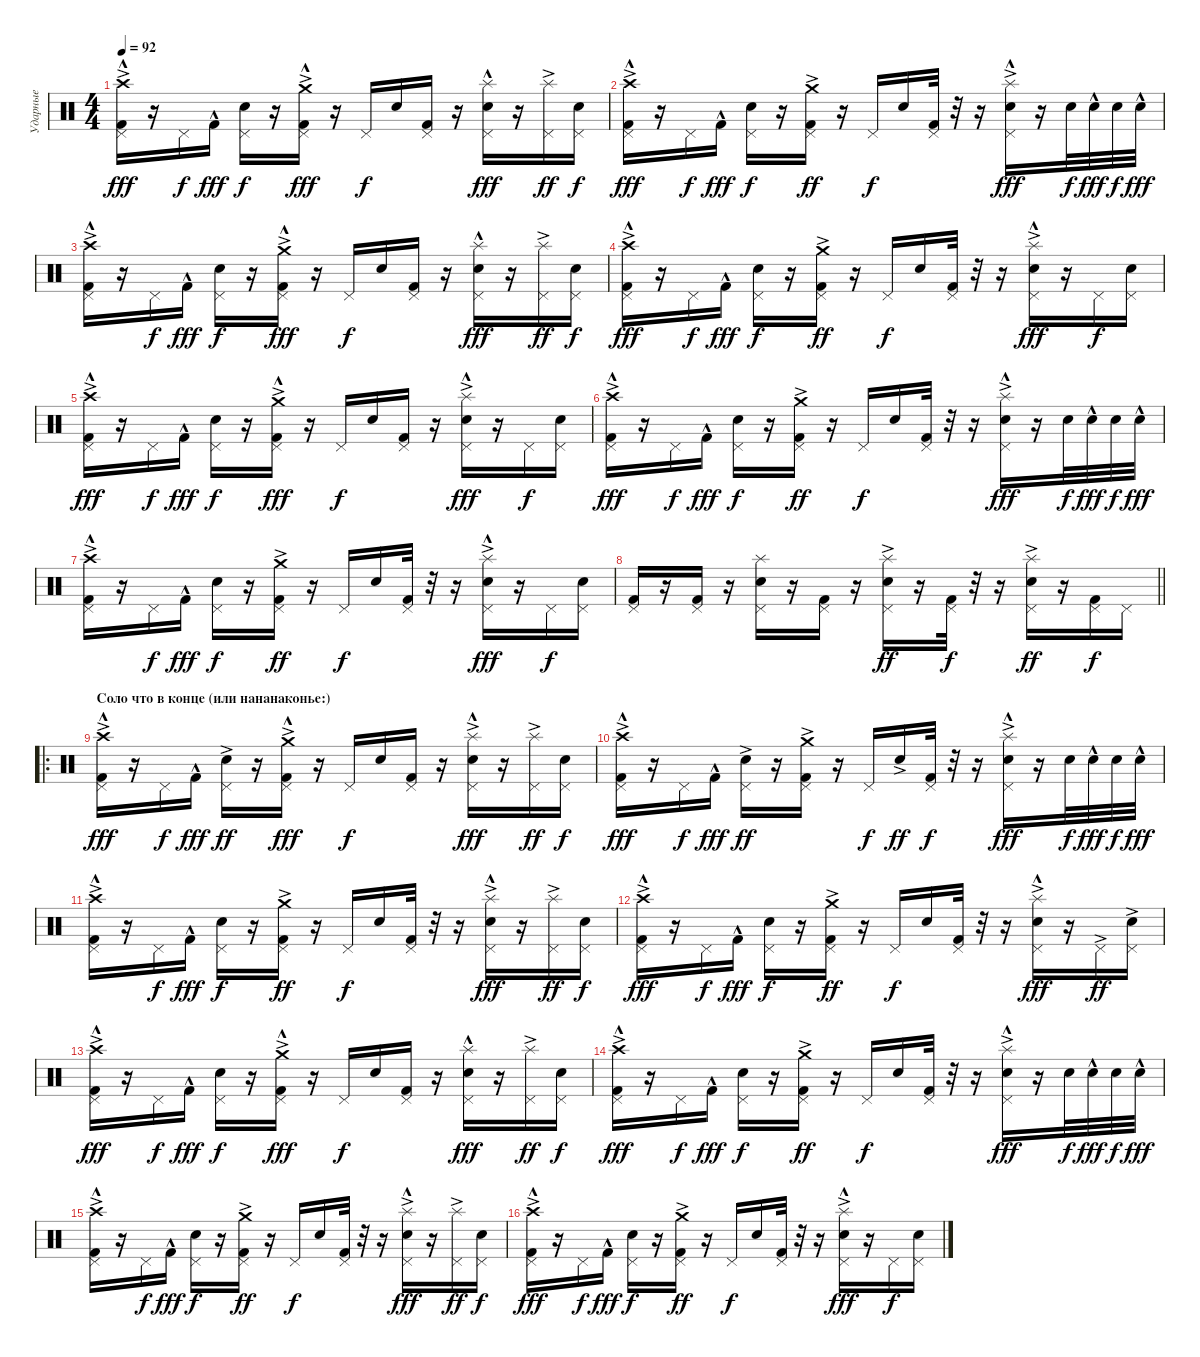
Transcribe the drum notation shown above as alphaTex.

\track ("Ударные" "Ударные") {instrument percussion}
\staff {score}
\articulation defaults
\ts (4 4)
\tempo 92
\clef neutral
\ks c
("Crash high (hit)"{ac} "Kick (hit) 2"{hac} "Pedal Hi-Hat (hit)").16{dy fff} r.16 "Pedal Hi-Hat (hit)".16{dy f} "Kick (hit) 2"{hac}.16{dy fff} ("Electric Snare (hit)" "Pedal Hi-Hat (hit)").16{dy f} r.16 ("Crash medium (hit)"{ac} "Kick (hit) 2"{hac} "Pedal Hi-Hat (hit)").16{dy fff} r.16 "Pedal Hi-Hat (hit)".16{dy f} "Electric Snare (hit)".16 ("Kick (hit) 2" "Pedal Hi-Hat (hit)").16 r.16 ("Splash (hit)" "Electric Snare (hit)" "Pedal Hi-Hat (hit)"{hac}).16{dy fff} r.16 ("Splash (hit)"{ac} "Pedal Hi-Hat (hit)").16{dy ff} ("Electric Snare (hit)" "Pedal Hi-Hat (hit)").16{dy f} |
("Crash high (hit)"{ac} "Kick (hit) 2"{hac} "Pedal Hi-Hat (hit)").16{dy fff} r.16 "Pedal Hi-Hat (hit)".16{dy f} "Kick (hit) 2"{hac}.16{dy fff} ("Electric Snare (hit)" "Pedal Hi-Hat (hit)").16{dy f} r.16 ("Crash medium (hit)"{ac} "Kick (hit) 2" "Pedal Hi-Hat (hit)").16{dy ff} r.16 "Pedal Hi-Hat (hit)".16{dy f} "Electric Snare (hit)".16 ("Kick (hit) 2" "Pedal Hi-Hat (hit)").32 r.32 r.16 ("Splash (hit)"{ac} "Electric Snare (hit)" "Pedal Hi-Hat (hit)"{hac}).16{dy fff} r.16 "Electric Snare (hit)".32{dy f} "Electric Snare (hit)"{hac}.32{dy fff} "Electric Snare (hit)".32{dy f} "Electric Snare (hit)"{hac}.32{dy fff} |
("Crash high (hit)"{ac} "Kick (hit) 2"{hac} "Pedal Hi-Hat (hit)").16 r.16 "Pedal Hi-Hat (hit)".16{dy f} "Kick (hit) 2"{hac}.16{dy fff} ("Electric Snare (hit)" "Pedal Hi-Hat (hit)").16{dy f} r.16 ("Crash medium (hit)"{ac} "Kick (hit) 2"{hac} "Pedal Hi-Hat (hit)").16{dy fff} r.16 "Pedal Hi-Hat (hit)".16{dy f} "Electric Snare (hit)".16 ("Kick (hit) 2" "Pedal Hi-Hat (hit)").16 r.16 ("Splash (hit)" "Electric Snare (hit)" "Pedal Hi-Hat (hit)"{hac}).16{dy fff} r.16 ("Splash (hit)"{ac} "Pedal Hi-Hat (hit)").16{dy ff} ("Electric Snare (hit)" "Pedal Hi-Hat (hit)").16{dy f} |
("Crash high (hit)"{ac} "Kick (hit) 2"{hac} "Pedal Hi-Hat (hit)").16{dy fff} r.16 "Pedal Hi-Hat (hit)".16{dy f} "Kick (hit) 2"{hac}.16{dy fff} ("Electric Snare (hit)" "Pedal Hi-Hat (hit)").16{dy f} r.16 ("Crash medium (hit)"{ac} "Kick (hit) 2" "Pedal Hi-Hat (hit)").16{dy ff} r.16 "Pedal Hi-Hat (hit)".16{dy f} "Electric Snare (hit)".16 ("Kick (hit) 2" "Pedal Hi-Hat (hit)").32 r.32 r.16 ("Splash (hit)"{ac} "Electric Snare (hit)" "Pedal Hi-Hat (hit)"{hac}).16{dy fff} r.16 "Pedal Hi-Hat (hit)".16{dy f} ("Electric Snare (hit)" "Pedal Hi-Hat (hit)").16 |
("Crash high (hit)"{ac} "Kick (hit) 2"{hac} "Pedal Hi-Hat (hit)").16{dy fff} r.16 "Pedal Hi-Hat (hit)".16{dy f} "Kick (hit) 2"{hac}.16{dy fff} ("Electric Snare (hit)" "Pedal Hi-Hat (hit)").16{dy f} r.16 ("Crash medium (hit)"{ac} "Kick (hit) 2"{hac} "Pedal Hi-Hat (hit)").16{dy fff} r.16 "Pedal Hi-Hat (hit)".16{dy f} "Electric Snare (hit)".16 ("Kick (hit) 2" "Pedal Hi-Hat (hit)").16 r.16 ("Splash (hit)"{ac} "Electric Snare (hit)" "Pedal Hi-Hat (hit)"{hac}).16{dy fff} r.16 "Pedal Hi-Hat (hit)".16{dy f} ("Electric Snare (hit)" "Pedal Hi-Hat (hit)").16 |
("Crash high (hit)"{ac} "Kick (hit) 2"{hac} "Pedal Hi-Hat (hit)").16{dy fff} r.16 "Pedal Hi-Hat (hit)".16{dy f} "Kick (hit) 2"{hac}.16{dy fff} ("Electric Snare (hit)" "Pedal Hi-Hat (hit)").16{dy f} r.16 ("Crash medium (hit)"{ac} "Kick (hit) 2" "Pedal Hi-Hat (hit)").16{dy ff} r.16 "Pedal Hi-Hat (hit)".16{dy f} "Electric Snare (hit)".16 ("Kick (hit) 2" "Pedal Hi-Hat (hit)").32 r.32 r.16 ("Splash (hit)"{ac} "Electric Snare (hit)" "Pedal Hi-Hat (hit)"{hac}).16{dy fff} r.16 "Electric Snare (hit)".32{dy f} "Electric Snare (hit)"{hac}.32{dy fff} "Electric Snare (hit)".32{dy f} "Electric Snare (hit)"{hac}.32{dy fff} |
("Crash high (hit)"{ac} "Kick (hit) 2"{hac} "Pedal Hi-Hat (hit)").16 r.16 "Pedal Hi-Hat (hit)".16{dy f} "Kick (hit) 2"{hac}.16{dy fff} ("Electric Snare (hit)" "Pedal Hi-Hat (hit)").16{dy f} r.16 ("Crash medium (hit)"{ac} "Kick (hit) 2" "Pedal Hi-Hat (hit)").16{dy ff} r.16 "Pedal Hi-Hat (hit)".16{dy f} "Electric Snare (hit)".16 ("Kick (hit) 2" "Pedal Hi-Hat (hit)").32 r.32 r.16 ("Splash (hit)"{ac} "Electric Snare (hit)" "Pedal Hi-Hat (hit)"{hac}).16{dy fff} r.16 "Pedal Hi-Hat (hit)".16{dy f} ("Electric Snare (hit)" "Pedal Hi-Hat (hit)").16 |
\barLineRight lightlight
("Kick (hit) 2" "Pedal Hi-Hat (hit)").16 r.16 ("Kick (hit) 2" "Pedal Hi-Hat (hit)").16 r.16 ("Splash (hit)" "Electric Snare (hit)" "Pedal Hi-Hat (hit)").16 r.16 ("Kick (hit) 2" "Pedal Hi-Hat (hit)").16 r.16 ("Splash (hit)"{ac} "Electric Snare (hit)" "Pedal Hi-Hat (hit)").16{dy ff} r.16 ("Kick (hit) 2" "Pedal Hi-Hat (hit)").32{dy f} r.32 r.16 ("Splash (hit)"{ac} "Electric Snare (hit)" "Pedal Hi-Hat (hit)").16{dy ff} r.16 ("Kick (hit) 2" "Pedal Hi-Hat (hit)").16{dy f} "Pedal Hi-Hat (hit)".16 |
\ro
\section ("" "Соло что в конце (или нананаконье:)")
("Crash high (hit)"{ac} "Kick (hit) 2"{hac} "Pedal Hi-Hat (hit)").16{dy fff} r.16 "Pedal Hi-Hat (hit)".16{dy f} "Kick (hit) 2"{hac}.16{dy fff} ("Electric Snare (hit)"{ac} "Pedal Hi-Hat (hit)").16{dy ff} r.16 ("Crash medium (hit)"{ac} "Kick (hit) 2"{hac} "Pedal Hi-Hat (hit)").16{dy fff} r.16 "Pedal Hi-Hat (hit)".16{dy f} "Electric Snare (hit)".16 ("Kick (hit) 2" "Pedal Hi-Hat (hit)").16 r.16 ("Splash (hit)" "Electric Snare (hit)"{ac} "Pedal Hi-Hat (hit)"{hac}).16{dy fff} r.16 ("Splash (hit)"{ac} "Pedal Hi-Hat (hit)").16{dy ff} ("Electric Snare (hit)" "Pedal Hi-Hat (hit)").16{dy f} |
("Crash high (hit)"{ac} "Kick (hit) 2"{hac} "Pedal Hi-Hat (hit)").16{dy fff} r.16 "Pedal Hi-Hat (hit)".16{dy f} "Kick (hit) 2"{hac}.16{dy fff} ("Electric Snare (hit)"{ac} "Pedal Hi-Hat (hit)").16{dy ff} r.16 ("Crash medium (hit)"{ac} "Kick (hit) 2" "Pedal Hi-Hat (hit)").16 r.16 "Pedal Hi-Hat (hit)".16{dy f} "Electric Snare (hit)"{ac}.16{dy ff} ("Kick (hit) 2" "Pedal Hi-Hat (hit)").32{dy f} r.32 r.16 ("Splash (hit)"{ac} "Electric Snare (hit)"{ac} "Pedal Hi-Hat (hit)"{hac}).16{dy fff} r.16 "Electric Snare (hit)".32{dy f} "Electric Snare (hit)"{hac}.32{dy fff} "Electric Snare (hit)".32{dy f} "Electric Snare (hit)"{hac}.32{dy fff} |
("Crash high (hit)"{ac} "Kick (hit) 2"{hac} "Pedal Hi-Hat (hit)").16 r.16 "Pedal Hi-Hat (hit)".16{dy f} "Kick (hit) 2"{hac}.16{dy fff} ("Electric Snare (hit)" "Pedal Hi-Hat (hit)").16{dy f} r.16 ("Crash medium (hit)"{ac} "Kick (hit) 2" "Pedal Hi-Hat (hit)").16{dy ff} r.16 "Pedal Hi-Hat (hit)".16{dy f} "Electric Snare (hit)".16 ("Kick (hit) 2" "Pedal Hi-Hat (hit)").32 r.32 r.16 ("Splash (hit)"{ac} "Electric Snare (hit)" "Pedal Hi-Hat (hit)"{hac}).16{dy fff} r.16 ("Splash (hit)"{ac} "Pedal Hi-Hat (hit)").16{dy ff} ("Electric Snare (hit)" "Pedal Hi-Hat (hit)").16{dy f} |
("Crash high (hit)"{ac} "Kick (hit) 2"{hac} "Pedal Hi-Hat (hit)").16{dy fff} r.16 "Pedal Hi-Hat (hit)".16{dy f} "Kick (hit) 2"{hac}.16{dy fff} ("Electric Snare (hit)" "Pedal Hi-Hat (hit)").16{dy f} r.16 ("Crash medium (hit)"{ac} "Kick (hit) 2" "Pedal Hi-Hat (hit)").16{dy ff} r.16 "Pedal Hi-Hat (hit)".16{dy f} "Electric Snare (hit)".16 ("Kick (hit) 2" "Pedal Hi-Hat (hit)").32 r.32 r.16 ("Splash (hit)"{ac} "Electric Snare (hit)" "Pedal Hi-Hat (hit)"{hac}).16{dy fff} r.16 "Pedal Hi-Hat (hit)"{ac}.16{dy ff} ("Electric Snare (hit)" "Pedal Hi-Hat (hit)"{ac}).16 |
("Crash high (hit)"{ac} "Kick (hit) 2"{hac} "Pedal Hi-Hat (hit)").16{dy fff} r.16 "Pedal Hi-Hat (hit)".16{dy f} "Kick (hit) 2"{hac}.16{dy fff} ("Electric Snare (hit)" "Pedal Hi-Hat (hit)").16{dy f} r.16 ("Crash medium (hit)"{ac} "Kick (hit) 2"{hac} "Pedal Hi-Hat (hit)").16{dy fff} r.16 "Pedal Hi-Hat (hit)".16{dy f} "Electric Snare (hit)".16 ("Kick (hit) 2" "Pedal Hi-Hat (hit)").16 r.16 ("Splash (hit)" "Electric Snare (hit)" "Pedal Hi-Hat (hit)"{hac}).16{dy fff} r.16 ("Splash (hit)"{ac} "Pedal Hi-Hat (hit)").16{dy ff} ("Electric Snare (hit)" "Pedal Hi-Hat (hit)").16{dy f} |
("Crash high (hit)"{ac} "Kick (hit) 2"{hac} "Pedal Hi-Hat (hit)").16{dy fff} r.16 "Pedal Hi-Hat (hit)".16{dy f} "Kick (hit) 2"{hac}.16{dy fff} ("Electric Snare (hit)" "Pedal Hi-Hat (hit)").16{dy f} r.16 ("Crash medium (hit)"{ac} "Kick (hit) 2" "Pedal Hi-Hat (hit)").16{dy ff} r.16 "Pedal Hi-Hat (hit)".16{dy f} "Electric Snare (hit)".16 ("Kick (hit) 2" "Pedal Hi-Hat (hit)").32 r.32 r.16 ("Splash (hit)"{ac} "Electric Snare (hit)" "Pedal Hi-Hat (hit)"{hac}).16{dy fff} r.16 "Electric Snare (hit)".32{dy f} "Electric Snare (hit)"{hac}.32{dy fff} "Electric Snare (hit)".32{dy f} "Electric Snare (hit)"{hac}.32{dy fff} |
("Crash high (hit)"{ac} "Kick (hit) 2"{hac} "Pedal Hi-Hat (hit)").16 r.16 "Pedal Hi-Hat (hit)".16{dy f} "Kick (hit) 2"{hac}.16{dy fff} ("Electric Snare (hit)" "Pedal Hi-Hat (hit)").16{dy f} r.16 ("Crash medium (hit)"{ac} "Kick (hit) 2" "Pedal Hi-Hat (hit)").16{dy ff} r.16 "Pedal Hi-Hat (hit)".16{dy f} "Electric Snare (hit)".16 ("Kick (hit) 2" "Pedal Hi-Hat (hit)").32 r.32 r.16 ("Splash (hit)"{ac} "Electric Snare (hit)" "Pedal Hi-Hat (hit)"{hac}).16{dy fff} r.16 ("Splash (hit)"{ac} "Pedal Hi-Hat (hit)").16{dy ff} ("Electric Snare (hit)" "Pedal Hi-Hat (hit)").16{dy f} |
("Crash high (hit)"{ac} "Kick (hit) 2"{hac} "Pedal Hi-Hat (hit)").16{dy fff} r.16 "Pedal Hi-Hat (hit)".16{dy f} "Kick (hit) 2"{hac}.16{dy fff} ("Electric Snare (hit)" "Pedal Hi-Hat (hit)").16{dy f} r.16 ("Crash medium (hit)"{ac} "Kick (hit) 2" "Pedal Hi-Hat (hit)").16{dy ff} r.16 "Pedal Hi-Hat (hit)".16{dy f} "Electric Snare (hit)".16 ("Kick (hit) 2" "Pedal Hi-Hat (hit)").32 r.32 r.16 ("Splash (hit)"{ac} "Electric Snare (hit)" "Pedal Hi-Hat (hit)"{hac}).16{dy fff} r.16 "Pedal Hi-Hat (hit)".16{dy f} ("Electric Snare (hit)" "Pedal Hi-Hat (hit)").16
